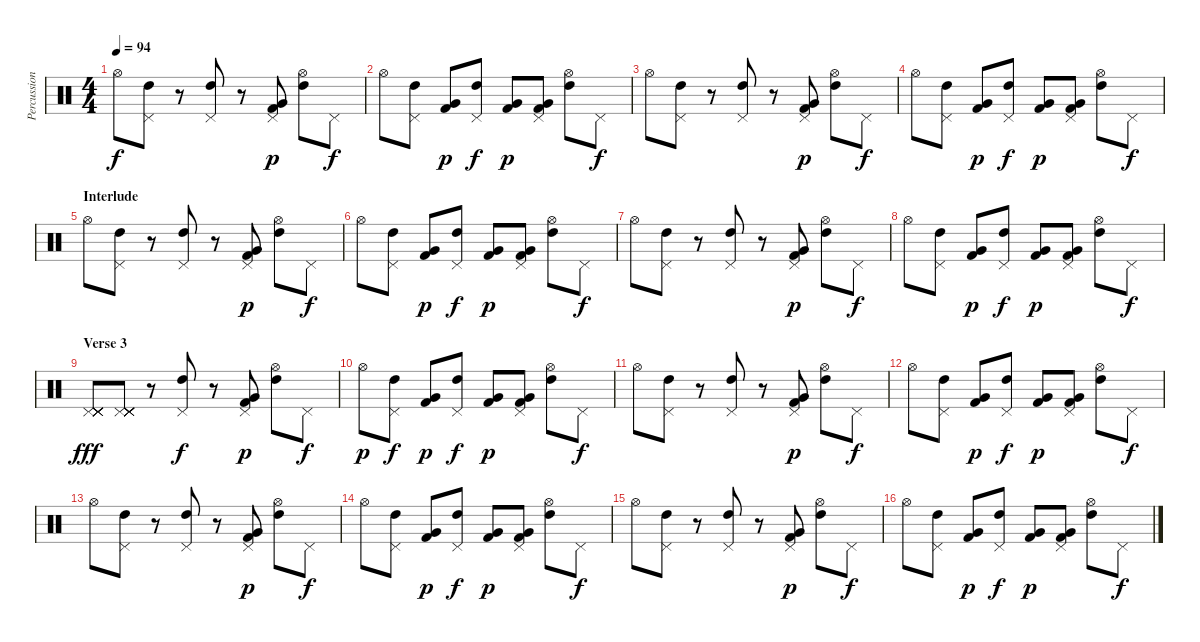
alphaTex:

\track ("Percussion" "Percussion") {instrument percussion}
\staff {score}
\articulation defaults
\ts (4 4)
\tempo 94
\clef neutral
\ks c "Hi-Hat (open)".8{dy f}
("Pedal Hi-Hat (hit)" "High Tom (hit)").8 r.8 ("Pedal Hi-Hat (hit)" "High Tom (hit)").8 r.8 ("Pedal Hi-Hat (hit)" "Very Low Tom (hit)" "Kick (hit) 2").8{dy p} ("Hi-Hat (open)" "High Tom (hit)").8 "Pedal Hi-Hat (hit)".8{dy f} |
"Hi-Hat (open)".8 ("Pedal Hi-Hat (hit)" "High Tom (hit)").8 ("Very Low Tom (hit)" "Kick (hit) 2").8{dy p} ("Pedal Hi-Hat (hit)" "High Tom (hit)").8{dy f} ("Very Low Tom (hit)" "Kick (hit) 2").8{dy p} ("Pedal Hi-Hat (hit)" "Very Low Tom (hit)" "Kick (hit) 2").8 ("Hi-Hat (open)" "High Tom (hit)").8 "Pedal Hi-Hat (hit)".8{dy f} |
"Hi-Hat (open)".8 ("Pedal Hi-Hat (hit)" "High Tom (hit)").8 r.8 ("Pedal Hi-Hat (hit)" "High Tom (hit)").8 r.8 ("Pedal Hi-Hat (hit)" "Very Low Tom (hit)" "Kick (hit) 2").8{dy p} ("Hi-Hat (open)" "High Tom (hit)").8 "Pedal Hi-Hat (hit)".8{dy f} |
"Hi-Hat (open)".8 ("Pedal Hi-Hat (hit)" "High Tom (hit)").8 ("Very Low Tom (hit)" "Kick (hit) 2").8{dy p} ("Pedal Hi-Hat (hit)" "High Tom (hit)").8{dy f} ("Very Low Tom (hit)" "Kick (hit) 2").8{dy p} ("Pedal Hi-Hat (hit)" "Very Low Tom (hit)" "Kick (hit) 2").8 ("Hi-Hat (open)" "High Tom (hit)").8 "Pedal Hi-Hat (hit)".8{dy f} |
\section ("" "Interlude")
"Hi-Hat (open)".8 ("Pedal Hi-Hat (hit)" "High Tom (hit)").8 r.8 ("Pedal Hi-Hat (hit)" "High Tom (hit)").8 r.8 ("Pedal Hi-Hat (hit)" "Very Low Tom (hit)" "Kick (hit) 2").8{dy p} ("Hi-Hat (open)" "High Tom (hit)").8 "Pedal Hi-Hat (hit)".8{dy f} |
"Hi-Hat (open)".8 ("Pedal Hi-Hat (hit)" "High Tom (hit)").8 ("Very Low Tom (hit)" "Kick (hit) 2").8{dy p} ("Pedal Hi-Hat (hit)" "High Tom (hit)").8{dy f} ("Very Low Tom (hit)" "Kick (hit) 2").8{dy p} ("Pedal Hi-Hat (hit)" "Very Low Tom (hit)" "Kick (hit) 2").8 ("Hi-Hat (open)" "High Tom (hit)").8 "Pedal Hi-Hat (hit)".8{dy f} |
"Hi-Hat (open)".8 ("Pedal Hi-Hat (hit)" "High Tom (hit)").8 r.8 ("Pedal Hi-Hat (hit)" "High Tom (hit)").8 r.8 ("Pedal Hi-Hat (hit)" "Very Low Tom (hit)" "Kick (hit) 2").8{dy p} ("Hi-Hat (open)" "High Tom (hit)").8 "Pedal Hi-Hat (hit)".8{dy f} |
"Hi-Hat (open)".8 ("Pedal Hi-Hat (hit)" "High Tom (hit)").8 ("Very Low Tom (hit)" "Kick (hit) 2").8{dy p} ("Pedal Hi-Hat (hit)" "High Tom (hit)").8{dy f} ("Very Low Tom (hit)" "Kick (hit) 2").8{dy p} ("Pedal Hi-Hat (hit)" "Very Low Tom (hit)" "Kick (hit) 2").8 ("Hi-Hat (open)" "High Tom (hit)").8 "Pedal Hi-Hat (hit)".8{dy f} |
\section ("" "Verse 3")
("Pedal Hi-Hat (hit)" "Pedal Hi-Hat (hit)" "Pedal Hi-Hat (hit)" "Pedal Hi-Hat (hit)" "Pedal Hi-Hat (hit)" "Pedal Hi-Hat (hit)").8{dy fff} ("Pedal Hi-Hat (hit)" "Pedal Hi-Hat (hit)" "Pedal Hi-Hat (hit)" "Pedal Hi-Hat (hit)" "Pedal Hi-Hat (hit)" "Pedal Hi-Hat (hit)").8 r.8 ("Pedal Hi-Hat (hit)" "High Tom (hit)").8{dy f} r.8 ("Pedal Hi-Hat (hit)" "Very Low Tom (hit)" "Kick (hit) 2").8{dy p} ("Hi-Hat (open)" "High Tom (hit)").8 "Pedal Hi-Hat (hit)".8{dy f} |
"Hi-Hat (open)".8{dy p} ("Pedal Hi-Hat (hit)" "High Tom (hit)").8{dy f} ("Very Low Tom (hit)" "Kick (hit) 2").8{dy p} ("Pedal Hi-Hat (hit)" "High Tom (hit)").8{dy f} ("Very Low Tom (hit)" "Kick (hit) 2").8{dy p} ("Pedal Hi-Hat (hit)" "Very Low Tom (hit)" "Kick (hit) 2").8 ("Hi-Hat (open)" "High Tom (hit)").8 "Pedal Hi-Hat (hit)".8{dy f} |
"Hi-Hat (open)".8 ("Pedal Hi-Hat (hit)" "High Tom (hit)").8 r.8 ("Pedal Hi-Hat (hit)" "High Tom (hit)").8 r.8 ("Pedal Hi-Hat (hit)" "Very Low Tom (hit)" "Kick (hit) 2").8{dy p} ("Hi-Hat (open)" "High Tom (hit)").8 "Pedal Hi-Hat (hit)".8{dy f} |
"Hi-Hat (open)".8 ("Pedal Hi-Hat (hit)" "High Tom (hit)").8 ("Very Low Tom (hit)" "Kick (hit) 2").8{dy p} ("Pedal Hi-Hat (hit)" "High Tom (hit)").8{dy f} ("Very Low Tom (hit)" "Kick (hit) 2").8{dy p} ("Pedal Hi-Hat (hit)" "Very Low Tom (hit)" "Kick (hit) 2").8 ("Hi-Hat (open)" "High Tom (hit)").8 "Pedal Hi-Hat (hit)".8{dy f} |
"Hi-Hat (open)".8 ("Pedal Hi-Hat (hit)" "High Tom (hit)").8 r.8 ("Pedal Hi-Hat (hit)" "High Tom (hit)").8 r.8 ("Pedal Hi-Hat (hit)" "Very Low Tom (hit)" "Kick (hit) 2").8{dy p} ("Hi-Hat (open)" "High Tom (hit)").8 "Pedal Hi-Hat (hit)".8{dy f} |
"Hi-Hat (open)".8 ("Pedal Hi-Hat (hit)" "High Tom (hit)").8 ("Very Low Tom (hit)" "Kick (hit) 2").8{dy p} ("Pedal Hi-Hat (hit)" "High Tom (hit)").8{dy f} ("Very Low Tom (hit)" "Kick (hit) 2").8{dy p} ("Pedal Hi-Hat (hit)" "Very Low Tom (hit)" "Kick (hit) 2").8 ("Hi-Hat (open)" "High Tom (hit)").8 "Pedal Hi-Hat (hit)".8{dy f} |
"Hi-Hat (open)".8 ("Pedal Hi-Hat (hit)" "High Tom (hit)").8 r.8 ("Pedal Hi-Hat (hit)" "High Tom (hit)").8 r.8 ("Pedal Hi-Hat (hit)" "Very Low Tom (hit)" "Kick (hit) 2").8{dy p} ("Hi-Hat (open)" "High Tom (hit)").8 "Pedal Hi-Hat (hit)".8{dy f} |
"Hi-Hat (open)".8 ("Pedal Hi-Hat (hit)" "High Tom (hit)").8 ("Very Low Tom (hit)" "Kick (hit) 2").8{dy p} ("Pedal Hi-Hat (hit)" "High Tom (hit)").8{dy f} ("Very Low Tom (hit)" "Kick (hit) 2").8{dy p} ("Pedal Hi-Hat (hit)" "Very Low Tom (hit)" "Kick (hit) 2").8 ("Hi-Hat (open)" "High Tom (hit)").8 "Pedal Hi-Hat (hit)".8{dy f}
